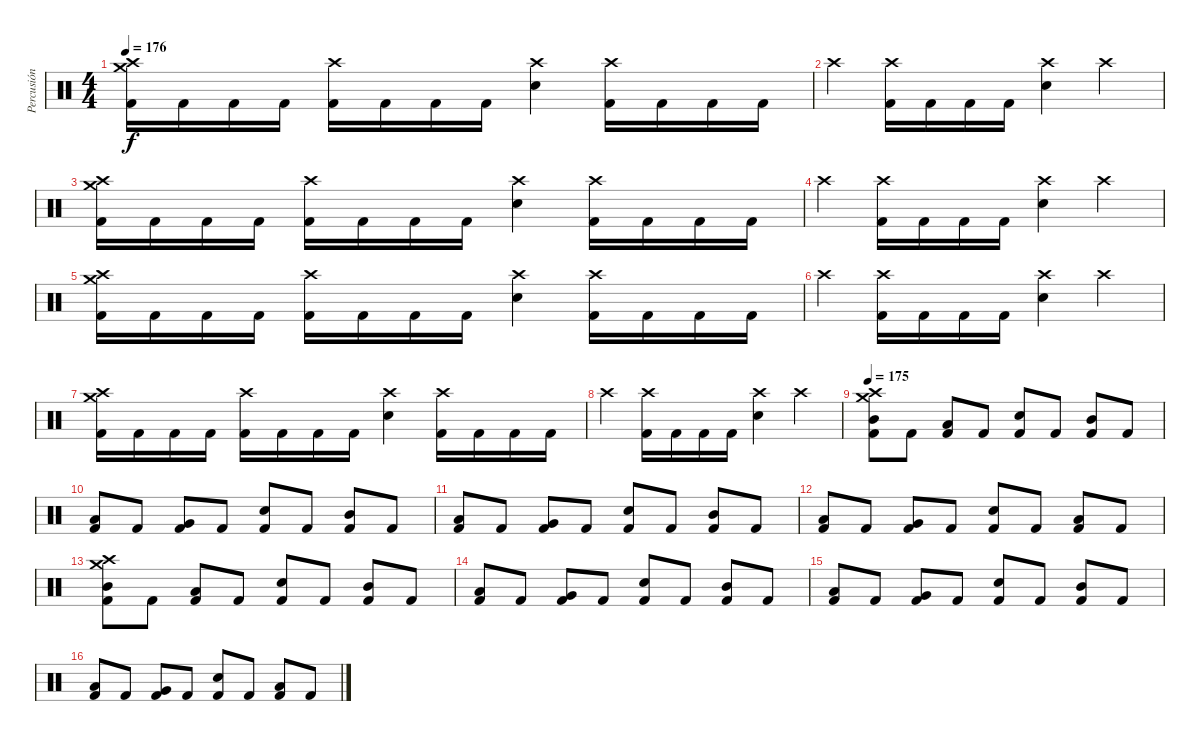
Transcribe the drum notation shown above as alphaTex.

\track ("Percusión" "Percusión") {instrument percussion}
\staff {score}
\articulation defaults
\ts (4 4)
\tempo 176
\clef neutral
\ks c
("Crash medium (hit)" "Crash high (hit)" "Kick (hit) 2").16{dy f} "Kick (hit) 2".16 "Kick (hit) 2".16 "Kick (hit) 2".16 ("Crash high (hit)" "Kick (hit) 2").16 "Kick (hit) 2".16 "Kick (hit) 2".16 "Kick (hit) 2".16 ("Crash high (hit)" "Electric Snare (hit)").4 ("Crash high (hit)" "Kick (hit) 2").16 "Kick (hit) 2".16 "Kick (hit) 2".16 "Kick (hit) 2".16 |
"Crash high (hit)".4 ("Crash high (hit)" "Kick (hit) 2").16 "Kick (hit) 2".16 "Kick (hit) 2".16 "Kick (hit) 2".16 ("Crash high (hit)" "Electric Snare (hit)").4 "Crash high (hit)".4 |
("Crash medium (hit)" "Crash high (hit)" "Kick (hit) 2").16 "Kick (hit) 2".16 "Kick (hit) 2".16 "Kick (hit) 2".16 ("Crash high (hit)" "Kick (hit) 2").16 "Kick (hit) 2".16 "Kick (hit) 2".16 "Kick (hit) 2".16 ("Crash high (hit)" "Electric Snare (hit)").4 ("Crash high (hit)" "Kick (hit) 2").16 "Kick (hit) 2".16 "Kick (hit) 2".16 "Kick (hit) 2".16 |
"Crash high (hit)".4 ("Crash high (hit)" "Kick (hit) 2").16 "Kick (hit) 2".16 "Kick (hit) 2".16 "Kick (hit) 2".16 ("Crash high (hit)" "Electric Snare (hit)").4 "Crash high (hit)".4 |
("Crash medium (hit)" "Crash high (hit)" "Kick (hit) 2").16 "Kick (hit) 2".16 "Kick (hit) 2".16 "Kick (hit) 2".16 ("Crash high (hit)" "Kick (hit) 2").16 "Kick (hit) 2".16 "Kick (hit) 2".16 "Kick (hit) 2".16 ("Crash high (hit)" "Electric Snare (hit)").4 ("Crash high (hit)" "Kick (hit) 2").16 "Kick (hit) 2".16 "Kick (hit) 2".16 "Kick (hit) 2".16 |
"Crash high (hit)".4 ("Crash high (hit)" "Kick (hit) 2").16 "Kick (hit) 2".16 "Kick (hit) 2".16 "Kick (hit) 2".16 ("Crash high (hit)" "Electric Snare (hit)").4 "Crash high (hit)".4 |
("Crash medium (hit)" "Crash high (hit)" "Kick (hit) 2").16 "Kick (hit) 2".16 "Kick (hit) 2".16 "Kick (hit) 2".16 ("Crash high (hit)" "Kick (hit) 2").16 "Kick (hit) 2".16 "Kick (hit) 2".16 "Kick (hit) 2".16 ("Crash high (hit)" "Electric Snare (hit)").4 ("Crash high (hit)" "Kick (hit) 2").16 "Kick (hit) 2".16 "Kick (hit) 2".16 "Kick (hit) 2".16 |
"Crash high (hit)".4 ("Crash high (hit)" "Kick (hit) 2").16 "Kick (hit) 2".16 "Kick (hit) 2".16 "Kick (hit) 2".16 ("Crash high (hit)" "Electric Snare (hit)").4 "Crash high (hit)".4 |
\tempo 175
("Crash medium (hit)" "Crash high (hit)" "Mid Tom (hit)" "Kick (hit) 2").8 "Kick (hit) 2".8 ("Low Tom (hit)" "Kick (hit) 2").8 "Kick (hit) 2".8 ("Electric Snare (hit)" "Kick (hit) 2").8 "Kick (hit) 2".8 ("Mid Tom (hit)" "Kick (hit) 2").8 "Kick (hit) 2".8 |
("Low Tom (hit)" "Kick (hit) 2").8 "Kick (hit) 2".8 ("Very Low Tom (hit)" "Kick (hit) 2").8 "Kick (hit) 2".8 ("Electric Snare (hit)" "Kick (hit) 2").8 "Kick (hit) 2".8 ("Mid Tom (hit)" "Kick (hit) 2").8 "Kick (hit) 2".8 |
("Low Tom (hit)" "Kick (hit) 2").8 "Kick (hit) 2".8 ("Very Low Tom (hit)" "Kick (hit) 2").8 "Kick (hit) 2".8 ("Electric Snare (hit)" "Kick (hit) 2").8 "Kick (hit) 2".8 ("Mid Tom (hit)" "Kick (hit) 2").8 "Kick (hit) 2".8 |
("Low Tom (hit)" "Kick (hit) 2").8 "Kick (hit) 2".8 ("Very Low Tom (hit)" "Kick (hit) 2").8 "Kick (hit) 2".8 ("Electric Snare (hit)" "Kick (hit) 2").8 "Kick (hit) 2".8 ("Low Tom (hit)" "Kick (hit) 2").8 "Kick (hit) 2".8 |
("Crash medium (hit)" "Crash high (hit)" "Mid Tom (hit)" "Kick (hit) 2").8 "Kick (hit) 2".8 ("Low Tom (hit)" "Kick (hit) 2").8 "Kick (hit) 2".8 ("Electric Snare (hit)" "Kick (hit) 2").8 "Kick (hit) 2".8 ("Mid Tom (hit)" "Kick (hit) 2").8 "Kick (hit) 2".8 |
("Low Tom (hit)" "Kick (hit) 2").8 "Kick (hit) 2".8 ("Very Low Tom (hit)" "Kick (hit) 2").8 "Kick (hit) 2".8 ("Electric Snare (hit)" "Kick (hit) 2").8 "Kick (hit) 2".8 ("Mid Tom (hit)" "Kick (hit) 2").8 "Kick (hit) 2".8 |
("Low Tom (hit)" "Kick (hit) 2").8 "Kick (hit) 2".8 ("Very Low Tom (hit)" "Kick (hit) 2").8 "Kick (hit) 2".8 ("Electric Snare (hit)" "Kick (hit) 2").8 "Kick (hit) 2".8 ("Mid Tom (hit)" "Kick (hit) 2").8 "Kick (hit) 2".8 |
("Low Tom (hit)" "Kick (hit) 2").8 "Kick (hit) 2".8 ("Very Low Tom (hit)" "Kick (hit) 2").8 "Kick (hit) 2".8 ("Electric Snare (hit)" "Kick (hit) 2").8 "Kick (hit) 2".8 ("Low Tom (hit)" "Kick (hit) 2").8 "Kick (hit) 2".8
